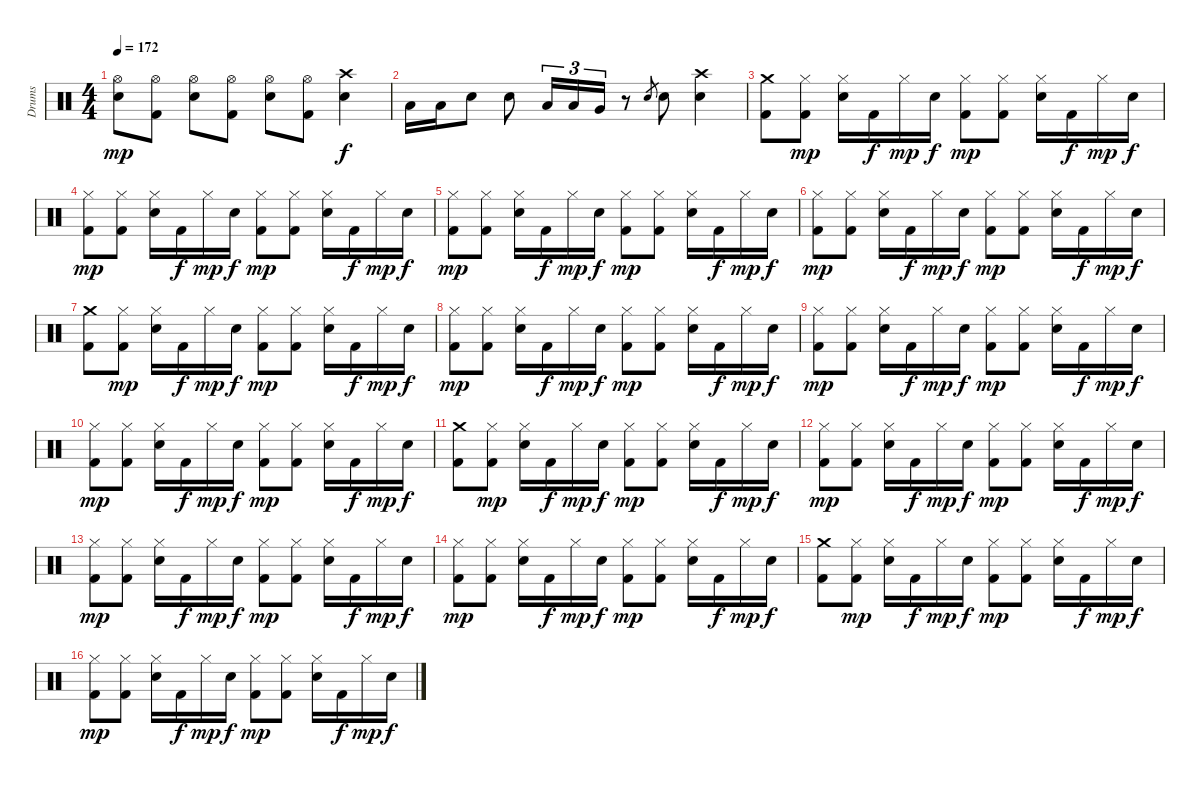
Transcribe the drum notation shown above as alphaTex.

\track ("Drums" "Drums") {instrument percussion}
\staff {score}
\articulation defaults
\ts (4 4)
\tempo 172
\clef neutral
\ks c
("Hi-Hat (open)" "Snare (hit) 2").8{dy mp} ("Hi-Hat (open)" "Kick (hit) 2").8 ("Hi-Hat (open)" "Snare (hit) 2").8 ("Hi-Hat (open)" "Kick (hit) 2").8 ("Hi-Hat (open)" "Snare (hit) 2").8 ("Hi-Hat (open)" "Kick (hit) 2").8 ("Crash high (hit)" "Snare (hit) 2").4{dy f} |
"Low Tom (hit)".16 "Low Tom (hit)".16 "Snare (hit) 2".8 "Snare (hit) 2".8 "Low Tom (hit)".16{tu (3 2)} "Low Tom (hit)".16{tu (3 2)} "Very Low Tom (hit)".16{tu (3 2)} r.8 "Snare (hit) 2".8{gr} "Snare (hit) 2".8 ("Crash high (hit)" "Snare (hit) 2").4 |
("Crash medium (hit)" "Kick (hit) 2").8 ("Hi-Hat (closed)" "Kick (hit) 2").8{dy mp} ("Hi-Hat (closed)" "Snare (hit) 2").16 "Kick (hit) 2".16{dy f} "Hi-Hat (closed)".16{dy mp} "Snare (hit) 2".16{dy f} ("Hi-Hat (closed)" "Kick (hit) 2").8{dy mp} ("Hi-Hat (closed)" "Kick (hit) 2").8 ("Hi-Hat (closed)" "Snare (hit) 2").16 "Kick (hit) 2".16{dy f} "Hi-Hat (closed)".16{dy mp} "Snare (hit) 2".16{dy f} |
("Hi-Hat (closed)" "Kick (hit) 2").8{dy mp} ("Hi-Hat (closed)" "Kick (hit) 2").8 ("Hi-Hat (closed)" "Snare (hit) 2").16 "Kick (hit) 2".16{dy f} "Hi-Hat (closed)".16{dy mp} "Snare (hit) 2".16{dy f} ("Hi-Hat (closed)" "Kick (hit) 2").8{dy mp} ("Hi-Hat (closed)" "Kick (hit) 2").8 ("Hi-Hat (closed)" "Snare (hit) 2").16 "Kick (hit) 2".16{dy f} "Hi-Hat (closed)".16{dy mp} "Snare (hit) 2".16{dy f} |
("Hi-Hat (closed)" "Kick (hit) 2").8{dy mp} ("Hi-Hat (closed)" "Kick (hit) 2").8 ("Hi-Hat (closed)" "Snare (hit) 2").16 "Kick (hit) 2".16{dy f} "Hi-Hat (closed)".16{dy mp} "Snare (hit) 2".16{dy f} ("Hi-Hat (closed)" "Kick (hit) 2").8{dy mp} ("Hi-Hat (closed)" "Kick (hit) 2").8 ("Hi-Hat (closed)" "Snare (hit) 2").16 "Kick (hit) 2".16{dy f} "Hi-Hat (closed)".16{dy mp} "Snare (hit) 2".16{dy f} |
("Hi-Hat (closed)" "Kick (hit) 2").8{dy mp} ("Hi-Hat (closed)" "Kick (hit) 2").8 ("Hi-Hat (closed)" "Snare (hit) 2").16 "Kick (hit) 2".16{dy f} "Hi-Hat (closed)".16{dy mp} "Snare (hit) 2".16{dy f} ("Hi-Hat (closed)" "Kick (hit) 2").8{dy mp} ("Hi-Hat (closed)" "Kick (hit) 2").8 ("Hi-Hat (closed)" "Snare (hit) 2").16 "Kick (hit) 2".16{dy f} "Hi-Hat (closed)".16{dy mp} "Snare (hit) 2".16{dy f} |
("Crash medium (hit)" "Kick (hit) 2").8 ("Hi-Hat (closed)" "Kick (hit) 2").8{dy mp} ("Hi-Hat (closed)" "Snare (hit) 2").16 "Kick (hit) 2".16{dy f} "Hi-Hat (closed)".16{dy mp} "Snare (hit) 2".16{dy f} ("Hi-Hat (closed)" "Kick (hit) 2").8{dy mp} ("Hi-Hat (closed)" "Kick (hit) 2").8 ("Hi-Hat (closed)" "Snare (hit) 2").16 "Kick (hit) 2".16{dy f} "Hi-Hat (closed)".16{dy mp} "Snare (hit) 2".16{dy f} |
("Hi-Hat (closed)" "Kick (hit) 2").8{dy mp} ("Hi-Hat (closed)" "Kick (hit) 2").8 ("Hi-Hat (closed)" "Snare (hit) 2").16 "Kick (hit) 2".16{dy f} "Hi-Hat (closed)".16{dy mp} "Snare (hit) 2".16{dy f} ("Hi-Hat (closed)" "Kick (hit) 2").8{dy mp} ("Hi-Hat (closed)" "Kick (hit) 2").8 ("Hi-Hat (closed)" "Snare (hit) 2").16 "Kick (hit) 2".16{dy f} "Hi-Hat (closed)".16{dy mp} "Snare (hit) 2".16{dy f} |
("Hi-Hat (closed)" "Kick (hit) 2").8{dy mp} ("Hi-Hat (closed)" "Kick (hit) 2").8 ("Hi-Hat (closed)" "Snare (hit) 2").16 "Kick (hit) 2".16{dy f} "Hi-Hat (closed)".16{dy mp} "Snare (hit) 2".16{dy f} ("Hi-Hat (closed)" "Kick (hit) 2").8{dy mp} ("Hi-Hat (closed)" "Kick (hit) 2").8 ("Hi-Hat (closed)" "Snare (hit) 2").16 "Kick (hit) 2".16{dy f} "Hi-Hat (closed)".16{dy mp} "Snare (hit) 2".16{dy f} |
("Hi-Hat (closed)" "Kick (hit) 2").8{dy mp} ("Hi-Hat (closed)" "Kick (hit) 2").8 ("Hi-Hat (closed)" "Snare (hit) 2").16 "Kick (hit) 2".16{dy f} "Hi-Hat (closed)".16{dy mp} "Snare (hit) 2".16{dy f} ("Hi-Hat (closed)" "Kick (hit) 2").8{dy mp} ("Hi-Hat (closed)" "Kick (hit) 2").8 ("Hi-Hat (closed)" "Snare (hit) 2").16 "Kick (hit) 2".16{dy f} "Hi-Hat (closed)".16{dy mp} "Snare (hit) 2".16{dy f} |
("Crash medium (hit)" "Kick (hit) 2").8 ("Hi-Hat (closed)" "Kick (hit) 2").8{dy mp} ("Hi-Hat (closed)" "Snare (hit) 2").16 "Kick (hit) 2".16{dy f} "Hi-Hat (closed)".16{dy mp} "Snare (hit) 2".16{dy f} ("Hi-Hat (closed)" "Kick (hit) 2").8{dy mp} ("Hi-Hat (closed)" "Kick (hit) 2").8 ("Hi-Hat (closed)" "Snare (hit) 2").16 "Kick (hit) 2".16{dy f} "Hi-Hat (closed)".16{dy mp} "Snare (hit) 2".16{dy f} |
("Hi-Hat (closed)" "Kick (hit) 2").8{dy mp} ("Hi-Hat (closed)" "Kick (hit) 2").8 ("Hi-Hat (closed)" "Snare (hit) 2").16 "Kick (hit) 2".16{dy f} "Hi-Hat (closed)".16{dy mp} "Snare (hit) 2".16{dy f} ("Hi-Hat (closed)" "Kick (hit) 2").8{dy mp} ("Hi-Hat (closed)" "Kick (hit) 2").8 ("Hi-Hat (closed)" "Snare (hit) 2").16 "Kick (hit) 2".16{dy f} "Hi-Hat (closed)".16{dy mp} "Snare (hit) 2".16{dy f} |
("Hi-Hat (closed)" "Kick (hit) 2").8{dy mp} ("Hi-Hat (closed)" "Kick (hit) 2").8 ("Hi-Hat (closed)" "Snare (hit) 2").16 "Kick (hit) 2".16{dy f} "Hi-Hat (closed)".16{dy mp} "Snare (hit) 2".16{dy f} ("Hi-Hat (closed)" "Kick (hit) 2").8{dy mp} ("Hi-Hat (closed)" "Kick (hit) 2").8 ("Hi-Hat (closed)" "Snare (hit) 2").16 "Kick (hit) 2".16{dy f} "Hi-Hat (closed)".16{dy mp} "Snare (hit) 2".16{dy f} |
("Hi-Hat (closed)" "Kick (hit) 2").8{dy mp} ("Hi-Hat (closed)" "Kick (hit) 2").8 ("Hi-Hat (closed)" "Snare (hit) 2").16 "Kick (hit) 2".16{dy f} "Hi-Hat (closed)".16{dy mp} "Snare (hit) 2".16{dy f} ("Hi-Hat (closed)" "Kick (hit) 2").8{dy mp} ("Hi-Hat (closed)" "Kick (hit) 2").8 ("Hi-Hat (closed)" "Snare (hit) 2").16 "Kick (hit) 2".16{dy f} "Hi-Hat (closed)".16{dy mp} "Snare (hit) 2".16{dy f} |
("Crash medium (hit)" "Kick (hit) 2").8 ("Hi-Hat (closed)" "Kick (hit) 2").8{dy mp} ("Hi-Hat (closed)" "Snare (hit) 2").16 "Kick (hit) 2".16{dy f} "Hi-Hat (closed)".16{dy mp} "Snare (hit) 2".16{dy f} ("Hi-Hat (closed)" "Kick (hit) 2").8{dy mp} ("Hi-Hat (closed)" "Kick (hit) 2").8 ("Hi-Hat (closed)" "Snare (hit) 2").16 "Kick (hit) 2".16{dy f} "Hi-Hat (closed)".16{dy mp} "Snare (hit) 2".16{dy f} |
("Hi-Hat (closed)" "Kick (hit) 2").8{dy mp} ("Hi-Hat (closed)" "Kick (hit) 2").8 ("Hi-Hat (closed)" "Snare (hit) 2").16 "Kick (hit) 2".16{dy f} "Hi-Hat (closed)".16{dy mp} "Snare (hit) 2".16{dy f} ("Hi-Hat (closed)" "Kick (hit) 2").8{dy mp} ("Hi-Hat (closed)" "Kick (hit) 2").8 ("Hi-Hat (closed)" "Snare (hit) 2").16 "Kick (hit) 2".16{dy f} "Hi-Hat (closed)".16{dy mp} "Snare (hit) 2".16{dy f}
